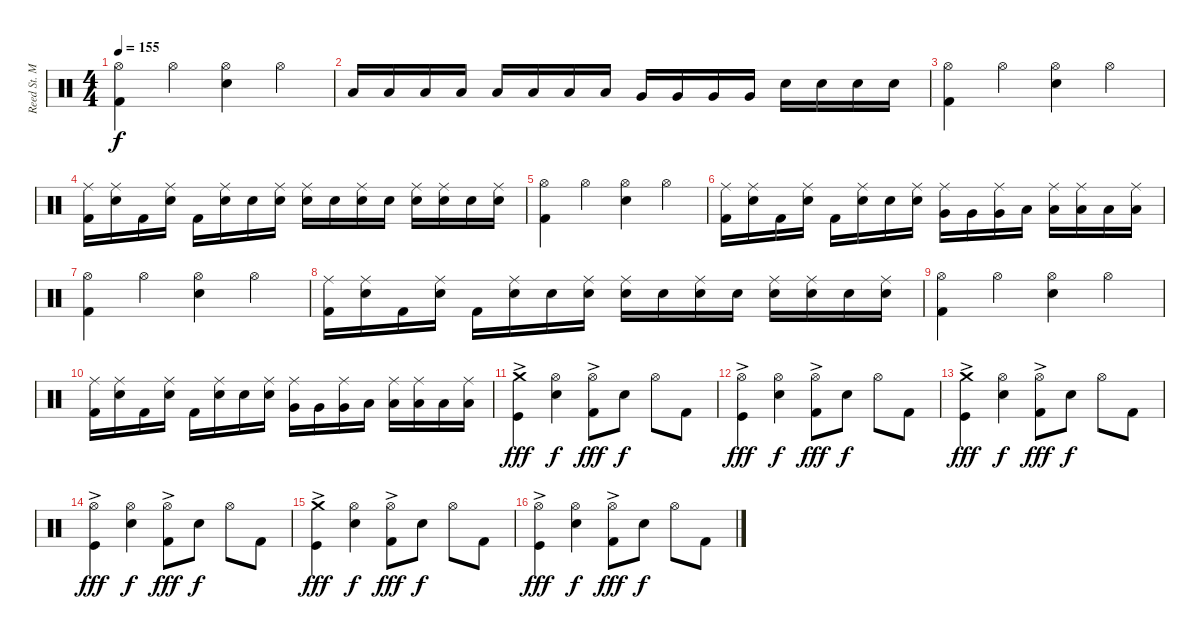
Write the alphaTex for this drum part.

\track ("Reed St. Mark" "Reed St. M") {instrument percussion}
\staff {score}
\articulation defaults
\ts (4 4)
\tempo 155
\clef neutral
\ks c
("Hi-Hat (open)" "Kick (hit) 2").4{dy f} "Hi-Hat (open)".4 ("Hi-Hat (open)" "Snare (hit) 2").4 "Hi-Hat (open)".4 |
"Low Tom (hit)".16 "Low Tom (hit)".16 "Low Tom (hit)".16 "Low Tom (hit)".16 "Low Tom (hit)".16 "Low Tom (hit)".16 "Low Tom (hit)".16 "Low Tom (hit)".16 "Very Low Tom (hit)".16 "Very Low Tom (hit)".16 "Very Low Tom (hit)".16 "Very Low Tom (hit)".16 "Snare (hit) 2".16 "Snare (hit) 2".16 "Snare (hit) 2".16 "Snare (hit) 2".16 |
("Hi-Hat (open)" "Kick (hit) 2").4 "Hi-Hat (open)".4 ("Hi-Hat (open)" "Snare (hit) 2").4 "Hi-Hat (open)".4 |
("Ride (middle)" "Kick (hit) 2").16 ("Ride (middle)" "Snare (hit) 2").16 "Kick (hit) 2".16 ("Ride (middle)" "Snare (hit) 2").16 "Kick (hit) 2".16 ("Ride (middle)" "Snare (hit) 2").16 "Snare (hit) 2".16 ("Ride (middle)" "Snare (hit) 2").16 ("Ride (middle)" "Snare (hit) 2").16 "Snare (hit) 2".16 ("Ride (middle)" "Snare (hit) 2").16 "Snare (hit) 2".16 ("Ride (middle)" "Snare (hit) 2").16 ("Ride (middle)" "Snare (hit) 2").16 "Snare (hit) 2".16 ("Ride (middle)" "Snare (hit) 2").16 |
("Hi-Hat (open)" "Kick (hit) 2").4 "Hi-Hat (open)".4 ("Hi-Hat (open)" "Snare (hit) 2").4 "Hi-Hat (open)".4 |
("Ride (middle)" "Kick (hit) 2").16 ("Ride (middle)" "Snare (hit) 2").16 "Kick (hit) 2".16 ("Ride (middle)" "Snare (hit) 2").16 "Kick (hit) 2".16 ("Ride (middle)" "Snare (hit) 2").16 "Snare (hit) 2".16 ("Ride (middle)" "Snare (hit) 2").16 ("Ride (middle)" "Very Low Tom (hit)").16 "Very Low Tom (hit)".16 ("Ride (middle)" "Very Low Tom (hit)").16 "Low Tom (hit)".16 ("Ride (middle)" "Low Tom (hit)").16 ("Ride (middle)" "Low Tom (hit)").16 "Low Tom (hit)".16 ("Ride (middle)" "Low Tom (hit)").16 |
("Hi-Hat (open)" "Kick (hit) 2").4 "Hi-Hat (open)".4 ("Hi-Hat (open)" "Snare (hit) 2").4 "Hi-Hat (open)".4 |
("Ride (middle)" "Kick (hit) 2").16 ("Ride (middle)" "Snare (hit) 2").16 "Kick (hit) 2".16 ("Ride (middle)" "Snare (hit) 2").16 "Kick (hit) 2".16 ("Ride (middle)" "Snare (hit) 2").16 "Snare (hit) 2".16 ("Ride (middle)" "Snare (hit) 2").16 ("Ride (middle)" "Snare (hit) 2").16 "Snare (hit) 2".16 ("Ride (middle)" "Snare (hit) 2").16 "Snare (hit) 2".16 ("Ride (middle)" "Snare (hit) 2").16 ("Ride (middle)" "Snare (hit) 2").16 "Snare (hit) 2".16 ("Ride (middle)" "Snare (hit) 2").16 |
("Hi-Hat (open)" "Kick (hit) 2").4 "Hi-Hat (open)".4 ("Hi-Hat (open)" "Snare (hit) 2").4 "Hi-Hat (open)".4 |
("Ride (middle)" "Kick (hit) 2").16 ("Ride (middle)" "Snare (hit) 2").16 "Kick (hit) 2".16 ("Ride (middle)" "Snare (hit) 2").16 "Kick (hit) 2".16 ("Ride (middle)" "Snare (hit) 2").16 "Snare (hit) 2".16 ("Ride (middle)" "Snare (hit) 2").16 ("Ride (middle)" "Very Low Tom (hit)").16 "Very Low Tom (hit)".16 ("Ride (middle)" "Very Low Tom (hit)").16 "Low Tom (hit)".16 ("Ride (middle)" "Low Tom (hit)").16 ("Ride (middle)" "Low Tom (hit)").16 "Low Tom (hit)".16 ("Ride (middle)" "Low Tom (hit)").16 |
("Crash medium (hit)" "Kick (hit)"{ac}).4{dy fff} ("Hi-Hat (open)" "Snare (hit) 2").4{dy f} ("Hi-Hat (open)"{ac} "Kick (hit) 2").8{dy fff} "Snare (hit) 2".8{dy f} "Hi-Hat (open)".8 "Kick (hit) 2".8 |
("Hi-Hat (open)" "Kick (hit)"{ac}).4{dy fff} ("Hi-Hat (open)" "Snare (hit) 2").4{dy f} ("Hi-Hat (open)"{ac} "Kick (hit) 2").8{dy fff} "Snare (hit) 2".8{dy f} "Hi-Hat (open)".8 "Kick (hit) 2".8 |
("Crash medium (hit)" "Kick (hit)"{ac}).4{dy fff} ("Hi-Hat (open)" "Snare (hit) 2").4{dy f} ("Hi-Hat (open)"{ac} "Kick (hit) 2").8{dy fff} "Snare (hit) 2".8{dy f} "Hi-Hat (open)".8 "Kick (hit) 2".8 |
("Hi-Hat (open)" "Kick (hit)"{ac}).4{dy fff} ("Hi-Hat (open)" "Snare (hit) 2").4{dy f} ("Hi-Hat (open)"{ac} "Kick (hit) 2").8{dy fff} "Snare (hit) 2".8{dy f} "Hi-Hat (open)".8 "Kick (hit) 2".8 |
("Crash medium (hit)" "Kick (hit)"{ac}).4{dy fff} ("Hi-Hat (open)" "Snare (hit) 2").4{dy f} ("Hi-Hat (open)"{ac} "Kick (hit) 2").8{dy fff} "Snare (hit) 2".8{dy f} "Hi-Hat (open)".8 "Kick (hit) 2".8 |
("Hi-Hat (open)" "Kick (hit)"{ac}).4{dy fff} ("Hi-Hat (open)" "Snare (hit) 2").4{dy f} ("Hi-Hat (open)"{ac} "Kick (hit) 2").8{dy fff} "Snare (hit) 2".8{dy f} "Hi-Hat (open)".8 "Kick (hit) 2".8
